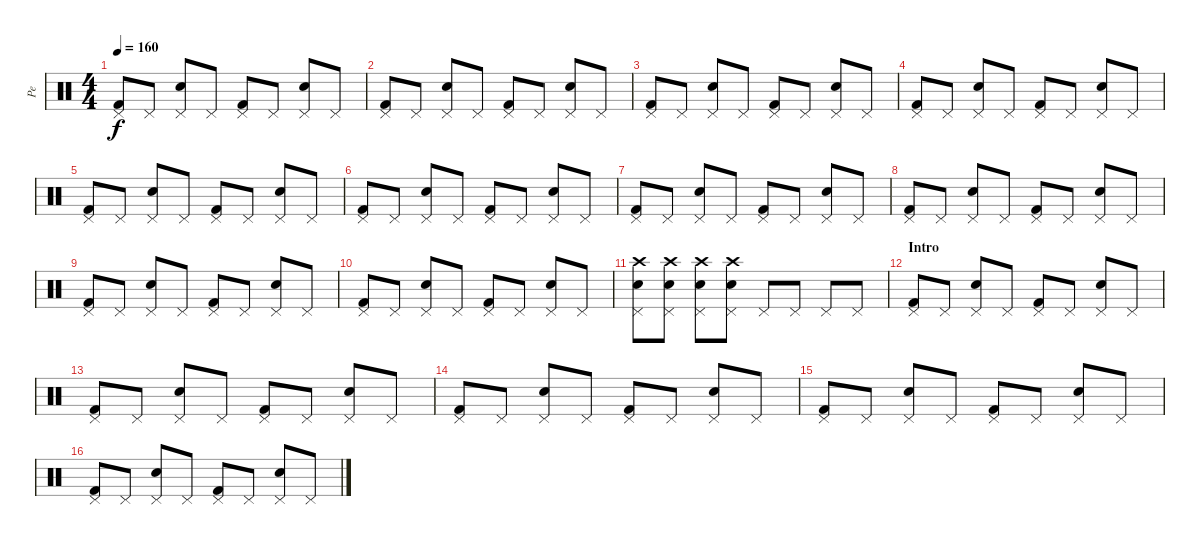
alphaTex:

\track ("Pe" "Pe") {instrument percussion}
\staff {score}
\articulation defaults
\ts (4 4)
\tempo 160
\clef neutral
\ks c
("Pedal Hi-Hat (hit)" "Kick (hit) 2").8{dy f} "Pedal Hi-Hat (hit)".8 ("Pedal Hi-Hat (hit)" "Electric Snare (hit)").8 "Pedal Hi-Hat (hit)".8 ("Pedal Hi-Hat (hit)" "Kick (hit) 2").8 "Pedal Hi-Hat (hit)".8 ("Pedal Hi-Hat (hit)" "Electric Snare (hit)").8 "Pedal Hi-Hat (hit)".8 |
("Pedal Hi-Hat (hit)" "Kick (hit) 2").8 "Pedal Hi-Hat (hit)".8 ("Pedal Hi-Hat (hit)" "Electric Snare (hit)").8 "Pedal Hi-Hat (hit)".8 ("Pedal Hi-Hat (hit)" "Kick (hit) 2").8 "Pedal Hi-Hat (hit)".8 ("Pedal Hi-Hat (hit)" "Electric Snare (hit)").8 "Pedal Hi-Hat (hit)".8 |
("Pedal Hi-Hat (hit)" "Kick (hit) 2").8 "Pedal Hi-Hat (hit)".8 ("Pedal Hi-Hat (hit)" "Electric Snare (hit)").8 "Pedal Hi-Hat (hit)".8 ("Pedal Hi-Hat (hit)" "Kick (hit) 2").8 "Pedal Hi-Hat (hit)".8 ("Pedal Hi-Hat (hit)" "Electric Snare (hit)").8 "Pedal Hi-Hat (hit)".8 |
("Pedal Hi-Hat (hit)" "Kick (hit) 2").8 "Pedal Hi-Hat (hit)".8 ("Pedal Hi-Hat (hit)" "Electric Snare (hit)").8 "Pedal Hi-Hat (hit)".8 ("Pedal Hi-Hat (hit)" "Kick (hit) 2").8 "Pedal Hi-Hat (hit)".8 ("Pedal Hi-Hat (hit)" "Electric Snare (hit)").8 "Pedal Hi-Hat (hit)".8 |
("Pedal Hi-Hat (hit)" "Kick (hit) 2").8 "Pedal Hi-Hat (hit)".8 ("Pedal Hi-Hat (hit)" "Electric Snare (hit)").8 "Pedal Hi-Hat (hit)".8 ("Pedal Hi-Hat (hit)" "Kick (hit) 2").8 "Pedal Hi-Hat (hit)".8 ("Pedal Hi-Hat (hit)" "Electric Snare (hit)").8 "Pedal Hi-Hat (hit)".8 |
("Pedal Hi-Hat (hit)" "Kick (hit) 2").8 "Pedal Hi-Hat (hit)".8 ("Pedal Hi-Hat (hit)" "Electric Snare (hit)").8 "Pedal Hi-Hat (hit)".8 ("Pedal Hi-Hat (hit)" "Kick (hit) 2").8 "Pedal Hi-Hat (hit)".8 ("Pedal Hi-Hat (hit)" "Electric Snare (hit)").8 "Pedal Hi-Hat (hit)".8 |
("Pedal Hi-Hat (hit)" "Kick (hit) 2").8 "Pedal Hi-Hat (hit)".8 ("Pedal Hi-Hat (hit)" "Electric Snare (hit)").8 "Pedal Hi-Hat (hit)".8 ("Pedal Hi-Hat (hit)" "Kick (hit) 2").8 "Pedal Hi-Hat (hit)".8 ("Pedal Hi-Hat (hit)" "Electric Snare (hit)").8 "Pedal Hi-Hat (hit)".8 |
("Pedal Hi-Hat (hit)" "Kick (hit) 2").8 "Pedal Hi-Hat (hit)".8 ("Pedal Hi-Hat (hit)" "Electric Snare (hit)").8 "Pedal Hi-Hat (hit)".8 ("Pedal Hi-Hat (hit)" "Kick (hit) 2").8 "Pedal Hi-Hat (hit)".8 ("Pedal Hi-Hat (hit)" "Electric Snare (hit)").8 "Pedal Hi-Hat (hit)".8 |
("Pedal Hi-Hat (hit)" "Kick (hit) 2").8 "Pedal Hi-Hat (hit)".8 ("Pedal Hi-Hat (hit)" "Electric Snare (hit)").8 "Pedal Hi-Hat (hit)".8 ("Pedal Hi-Hat (hit)" "Kick (hit) 2").8 "Pedal Hi-Hat (hit)".8 ("Pedal Hi-Hat (hit)" "Electric Snare (hit)").8 "Pedal Hi-Hat (hit)".8 |
("Pedal Hi-Hat (hit)" "Kick (hit) 2").8 "Pedal Hi-Hat (hit)".8 ("Pedal Hi-Hat (hit)" "Electric Snare (hit)").8 "Pedal Hi-Hat (hit)".8 ("Pedal Hi-Hat (hit)" "Kick (hit) 2").8 "Pedal Hi-Hat (hit)".8 ("Pedal Hi-Hat (hit)" "Electric Snare (hit)").8 "Pedal Hi-Hat (hit)".8 |
("Pedal Hi-Hat (hit)" "Electric Snare (hit)" "Crash high (hit)").8 ("Pedal Hi-Hat (hit)" "Electric Snare (hit)" "Crash high (hit)").8 ("Pedal Hi-Hat (hit)" "Electric Snare (hit)" "Crash high (hit)").8 ("Pedal Hi-Hat (hit)" "Electric Snare (hit)" "Crash high (hit)").8 "Pedal Hi-Hat (hit)".8 "Pedal Hi-Hat (hit)".8 "Pedal Hi-Hat (hit)".8 "Pedal Hi-Hat (hit)".8 |
\section ("" "Intro")
("Pedal Hi-Hat (hit)" "Kick (hit) 2").8 "Pedal Hi-Hat (hit)".8 ("Pedal Hi-Hat (hit)" "Electric Snare (hit)").8 "Pedal Hi-Hat (hit)".8 ("Pedal Hi-Hat (hit)" "Kick (hit) 2").8 "Pedal Hi-Hat (hit)".8 ("Pedal Hi-Hat (hit)" "Electric Snare (hit)").8 "Pedal Hi-Hat (hit)".8 |
("Pedal Hi-Hat (hit)" "Kick (hit) 2").8 "Pedal Hi-Hat (hit)".8 ("Pedal Hi-Hat (hit)" "Electric Snare (hit)").8 "Pedal Hi-Hat (hit)".8 ("Pedal Hi-Hat (hit)" "Kick (hit) 2").8 "Pedal Hi-Hat (hit)".8 ("Pedal Hi-Hat (hit)" "Electric Snare (hit)").8 "Pedal Hi-Hat (hit)".8 |
("Pedal Hi-Hat (hit)" "Kick (hit) 2").8 "Pedal Hi-Hat (hit)".8 ("Pedal Hi-Hat (hit)" "Electric Snare (hit)").8 "Pedal Hi-Hat (hit)".8 ("Pedal Hi-Hat (hit)" "Kick (hit) 2").8 "Pedal Hi-Hat (hit)".8 ("Pedal Hi-Hat (hit)" "Electric Snare (hit)").8 "Pedal Hi-Hat (hit)".8 |
("Pedal Hi-Hat (hit)" "Kick (hit) 2").8 "Pedal Hi-Hat (hit)".8 ("Pedal Hi-Hat (hit)" "Electric Snare (hit)").8 "Pedal Hi-Hat (hit)".8 ("Pedal Hi-Hat (hit)" "Kick (hit) 2").8 "Pedal Hi-Hat (hit)".8 ("Pedal Hi-Hat (hit)" "Electric Snare (hit)").8 "Pedal Hi-Hat (hit)".8 |
("Pedal Hi-Hat (hit)" "Kick (hit) 2").8 "Pedal Hi-Hat (hit)".8 ("Pedal Hi-Hat (hit)" "Electric Snare (hit)").8 "Pedal Hi-Hat (hit)".8 ("Pedal Hi-Hat (hit)" "Kick (hit) 2").8 "Pedal Hi-Hat (hit)".8 ("Pedal Hi-Hat (hit)" "Electric Snare (hit)").8 "Pedal Hi-Hat (hit)".8
